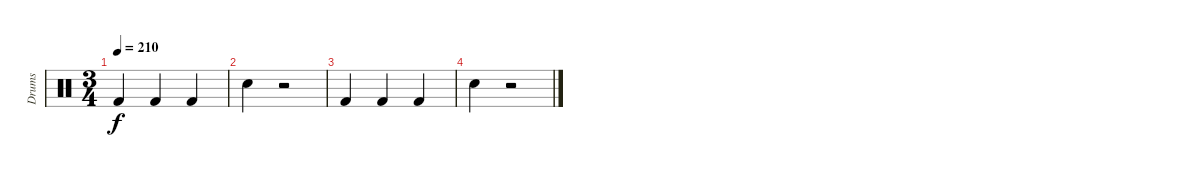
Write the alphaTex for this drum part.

\track ("Drums" "Drums") {instrument percussion}
\staff {score}
\articulation defaults
\ts (3 4)
\tempo 210
\clef neutral
\ks c "Kick (hit) 2".4{dy f} "Kick (hit) 2".4 "Kick (hit) 2".4
|
"Electric Snare (hit)".4 r.2 |
"Kick (hit) 2".4 "Kick (hit) 2".4 "Kick (hit) 2".4 |
"Electric Snare (hit)".4 r.2
